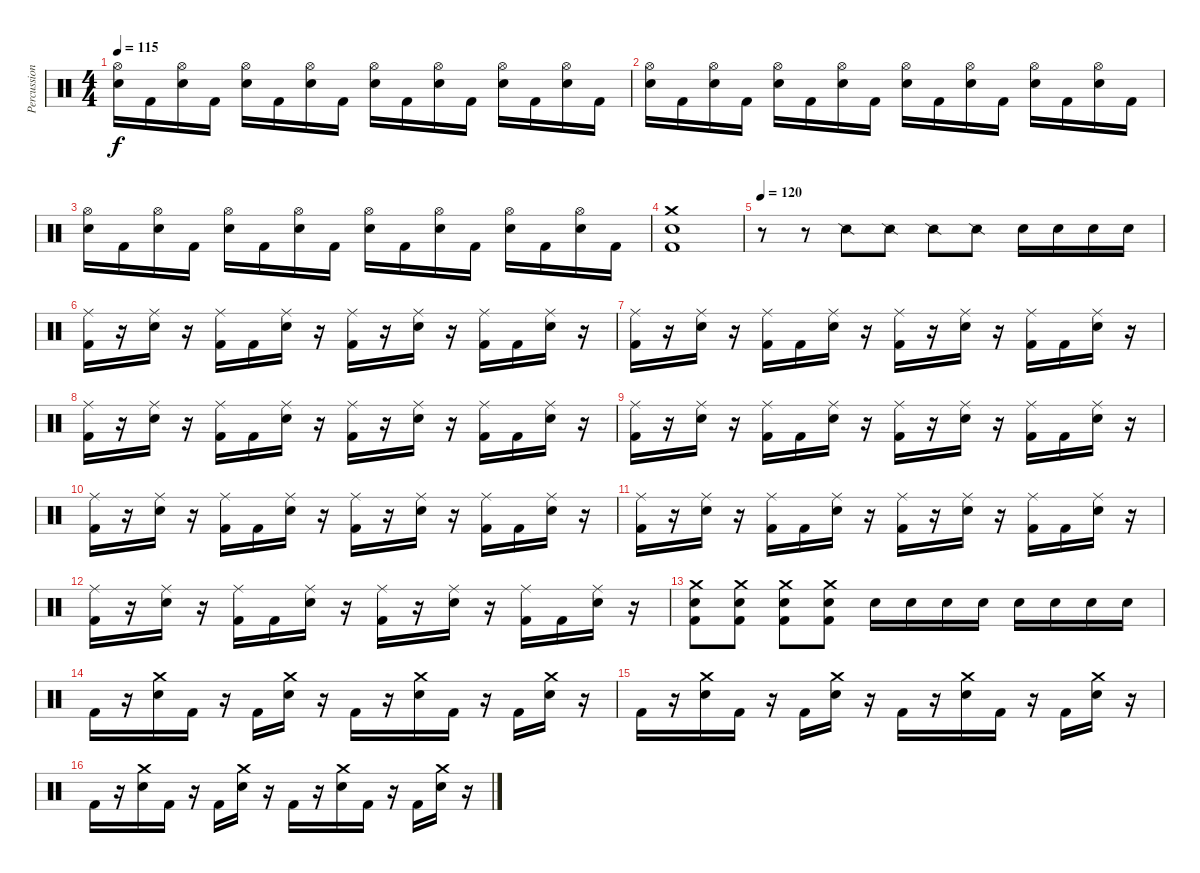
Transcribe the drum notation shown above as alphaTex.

\track ("Percussion" "Percussion") {instrument percussion}
\staff {score}
\articulation defaults
\ts (4 4)
\tempo 115
\clef neutral
\ks c
("Hi-Hat (open)" "Electric Snare (hit)").16{dy f} "Kick (hit) 2".16 ("Hi-Hat (open)" "Electric Snare (hit)").16 "Kick (hit) 2".16 ("Hi-Hat (open)" "Electric Snare (hit)").16 "Kick (hit) 2".16 ("Hi-Hat (open)" "Electric Snare (hit)").16 "Kick (hit) 2".16 ("Hi-Hat (open)" "Electric Snare (hit)").16 "Kick (hit) 2".16 ("Hi-Hat (open)" "Electric Snare (hit)").16 "Kick (hit) 2".16 ("Hi-Hat (open)" "Electric Snare (hit)").16 "Kick (hit) 2".16 ("Hi-Hat (open)" "Electric Snare (hit)").16 "Kick (hit) 2".16 |
("Hi-Hat (open)" "Electric Snare (hit)").16 "Kick (hit) 2".16 ("Hi-Hat (open)" "Electric Snare (hit)").16 "Kick (hit) 2".16 ("Hi-Hat (open)" "Electric Snare (hit)").16 "Kick (hit) 2".16 ("Hi-Hat (open)" "Electric Snare (hit)").16 "Kick (hit) 2".16 ("Hi-Hat (open)" "Electric Snare (hit)").16 "Kick (hit) 2".16 ("Hi-Hat (open)" "Electric Snare (hit)").16 "Kick (hit) 2".16 ("Hi-Hat (open)" "Electric Snare (hit)").16 "Kick (hit) 2".16 ("Hi-Hat (open)" "Electric Snare (hit)").16 "Kick (hit) 2".16 |
("Hi-Hat (open)" "Electric Snare (hit)").16 "Kick (hit) 2".16 ("Hi-Hat (open)" "Electric Snare (hit)").16 "Kick (hit) 2".16 ("Hi-Hat (open)" "Electric Snare (hit)").16 "Kick (hit) 2".16 ("Hi-Hat (open)" "Electric Snare (hit)").16 "Kick (hit) 2".16 ("Hi-Hat (open)" "Electric Snare (hit)").16 "Kick (hit) 2".16 ("Hi-Hat (open)" "Electric Snare (hit)").16 "Kick (hit) 2".16 ("Hi-Hat (open)" "Electric Snare (hit)").16 "Kick (hit) 2".16 ("Hi-Hat (open)" "Electric Snare (hit)").16 "Kick (hit) 2".16 |
("Crash medium (hit)" "Electric Snare (hit)" "Kick (hit) 2").1 |
\tempo 120
r.8 r.8 "Snare (side stick) 2".8 "Snare (side stick) 2".8 "Snare (side stick) 2".8 "Snare (side stick) 2".8 "Electric Snare (hit)".16 "Electric Snare (hit)".16 "Electric Snare (hit)".16 "Electric Snare (hit)".16 |
("Ride (middle)" "Kick (hit) 2").16 r.16 ("Ride (middle)" "Electric Snare (hit)").16 r.16 ("Ride (middle)" "Kick (hit) 2").16 "Kick (hit) 2".16 ("Ride (middle)" "Electric Snare (hit)").16 r.16 ("Ride (middle)" "Kick (hit) 2").16 r.16 ("Ride (middle)" "Electric Snare (hit)").16 r.16 ("Ride (middle)" "Kick (hit) 2").16 "Kick (hit) 2".16 ("Ride (middle)" "Electric Snare (hit)").16 r.16 |
("Ride (middle)" "Kick (hit) 2").16 r.16 ("Ride (middle)" "Electric Snare (hit)").16 r.16 ("Ride (middle)" "Kick (hit) 2").16 "Kick (hit) 2".16 ("Ride (middle)" "Electric Snare (hit)").16 r.16 ("Ride (middle)" "Kick (hit) 2").16 r.16 ("Ride (middle)" "Electric Snare (hit)").16 r.16 ("Ride (middle)" "Kick (hit) 2").16 "Kick (hit) 2".16 ("Ride (middle)" "Electric Snare (hit)").16 r.16 |
("Ride (middle)" "Kick (hit) 2").16 r.16 ("Ride (middle)" "Electric Snare (hit)").16 r.16 ("Ride (middle)" "Kick (hit) 2").16 "Kick (hit) 2".16 ("Ride (middle)" "Electric Snare (hit)").16 r.16 ("Ride (middle)" "Kick (hit) 2").16 r.16 ("Ride (middle)" "Electric Snare (hit)").16 r.16 ("Ride (middle)" "Kick (hit) 2").16 "Kick (hit) 2".16 ("Ride (middle)" "Electric Snare (hit)").16 r.16 |
("Ride (middle)" "Kick (hit) 2").16 r.16 ("Ride (middle)" "Electric Snare (hit)").16 r.16 ("Ride (middle)" "Kick (hit) 2").16 "Kick (hit) 2".16 ("Ride (middle)" "Electric Snare (hit)").16 r.16 ("Ride (middle)" "Kick (hit) 2").16 r.16 ("Ride (middle)" "Electric Snare (hit)").16 r.16 ("Ride (middle)" "Kick (hit) 2").16 "Kick (hit) 2".16 ("Ride (middle)" "Electric Snare (hit)").16 r.16 |
("Ride (middle)" "Kick (hit) 2").16 r.16 ("Ride (middle)" "Electric Snare (hit)").16 r.16 ("Ride (middle)" "Kick (hit) 2").16 "Kick (hit) 2".16 ("Ride (middle)" "Electric Snare (hit)").16 r.16 ("Ride (middle)" "Kick (hit) 2").16 r.16 ("Ride (middle)" "Electric Snare (hit)").16 r.16 ("Ride (middle)" "Kick (hit) 2").16 "Kick (hit) 2".16 ("Ride (middle)" "Electric Snare (hit)").16 r.16 |
("Ride (middle)" "Kick (hit) 2").16 r.16 ("Ride (middle)" "Electric Snare (hit)").16 r.16 ("Ride (middle)" "Kick (hit) 2").16 "Kick (hit) 2".16 ("Ride (middle)" "Electric Snare (hit)").16 r.16 ("Ride (middle)" "Kick (hit) 2").16 r.16 ("Ride (middle)" "Electric Snare (hit)").16 r.16 ("Ride (middle)" "Kick (hit) 2").16 "Kick (hit) 2".16 ("Ride (middle)" "Electric Snare (hit)").16 r.16 |
("Ride (middle)" "Kick (hit) 2").16 r.16 ("Ride (middle)" "Electric Snare (hit)").16 r.16 ("Ride (middle)" "Kick (hit) 2").16 "Kick (hit) 2".16 ("Ride (middle)" "Electric Snare (hit)").16 r.16 ("Ride (middle)" "Kick (hit) 2").16 r.16 ("Ride (middle)" "Electric Snare (hit)").16 r.16 ("Ride (middle)" "Kick (hit) 2").16 "Kick (hit) 2".16 ("Ride (middle)" "Electric Snare (hit)").16 r.16 |
("Crash medium (hit)" "Electric Snare (hit)" "Kick (hit) 2").8 ("Crash medium (hit)" "Electric Snare (hit)" "Kick (hit) 2").8 ("Crash medium (hit)" "Electric Snare (hit)" "Kick (hit) 2").8 ("Crash medium (hit)" "Electric Snare (hit)" "Kick (hit) 2").8 "Electric Snare (hit)".16 "Electric Snare (hit)".16 "Electric Snare (hit)".16 "Electric Snare (hit)".16 "Electric Snare (hit)".16 "Electric Snare (hit)".16 "Electric Snare (hit)".16 "Electric Snare (hit)".16 |
"Kick (hit) 2".16 r.16 ("Crash medium (hit)" "Electric Snare (hit)").16 "Kick (hit) 2".16 r.16 "Kick (hit) 2".16 ("Crash medium (hit)" "Electric Snare (hit)").16 r.16 "Kick (hit) 2".16 r.16 ("Crash medium (hit)" "Electric Snare (hit)").16 "Kick (hit) 2".16 r.16 "Kick (hit) 2".16 ("Crash medium (hit)" "Electric Snare (hit)").16 r.16 |
"Kick (hit) 2".16 r.16 ("Crash medium (hit)" "Electric Snare (hit)").16 "Kick (hit) 2".16 r.16 "Kick (hit) 2".16 ("Crash medium (hit)" "Electric Snare (hit)").16 r.16 "Kick (hit) 2".16 r.16 ("Crash medium (hit)" "Electric Snare (hit)").16 "Kick (hit) 2".16 r.16 "Kick (hit) 2".16 ("Crash medium (hit)" "Electric Snare (hit)").16 r.16 |
"Kick (hit) 2".16 r.16 ("Crash medium (hit)" "Electric Snare (hit)").16 "Kick (hit) 2".16 r.16 "Kick (hit) 2".16 ("Crash medium (hit)" "Electric Snare (hit)").16 r.16 "Kick (hit) 2".16 r.16 ("Crash medium (hit)" "Electric Snare (hit)").16 "Kick (hit) 2".16 r.16 "Kick (hit) 2".16 ("Crash medium (hit)" "Electric Snare (hit)").16 r.16
